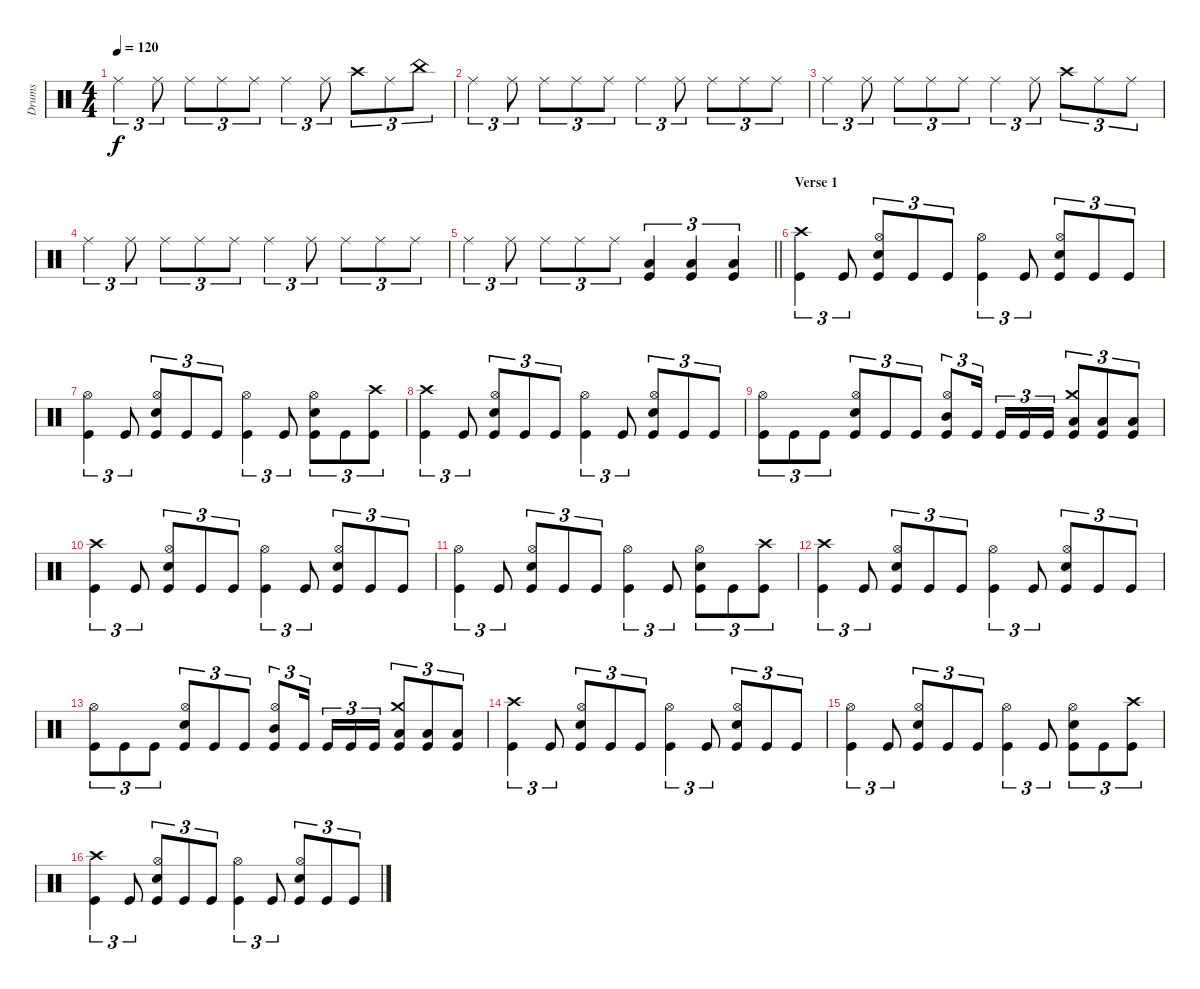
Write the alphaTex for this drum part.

\track ("Drums" "Drums") {instrument percussion}
\staff {score}
\articulation defaults
\ts (4 4)
\tempo 120
\clef neutral
\ks c "Ride (middle)".4{tu (3 2) dy f} "Ride (middle)".8{tu (3 2)} "Ride (middle)".8{tu (3 2)} "Ride (middle)".8{tu (3 2)} "Ride (middle)".8{tu (3 2)} "Ride (middle)".4{tu (3 2)} "Ride (middle)".8{tu (3 2)} "Crash high (hit)".8{tu (3 2)} "Ride (middle)".8{tu (3 2)} "China (hit)".8{tu (3 2)}
|
"Ride (middle)".4{tu (3 2)} "Ride (middle)".8{tu (3 2)} "Ride (middle)".8{tu (3 2)} "Ride (middle)".8{tu (3 2)} "Ride (middle)".8{tu (3 2)} "Ride (middle)".4{tu (3 2)} "Ride (middle)".8{tu (3 2)} "Ride (middle)".8{tu (3 2)} "Ride (middle)".8{tu (3 2)} "Ride (middle)".8{tu (3 2)} |
"Ride (middle)".4{tu (3 2)} "Ride (middle)".8{tu (3 2)} "Ride (middle)".8{tu (3 2)} "Ride (middle)".8{tu (3 2)} "Ride (middle)".8{tu (3 2)} "Ride (middle)".4{tu (3 2)} "Ride (middle)".8{tu (3 2)} "Crash high (hit)".8{tu (3 2)} "Ride (middle)".8{tu (3 2)} "Ride (middle)".8{tu (3 2)} |
"Ride (middle)".4{tu (3 2)} "Ride (middle)".8{tu (3 2)} "Ride (middle)".8{tu (3 2)} "Ride (middle)".8{tu (3 2)} "Ride (middle)".8{tu (3 2)} "Ride (middle)".4{tu (3 2)} "Ride (middle)".8{tu (3 2)} "Ride (middle)".8{tu (3 2)} "Ride (middle)".8{tu (3 2)} "Ride (middle)".8{tu (3 2)} |
\barLineRight lightlight "Ride (middle)".4{tu (3 2)} "Ride (middle)".8{tu (3 2)} "Ride (middle)".8{tu (3 2)} "Ride (middle)".8{tu (3 2)} "Ride (middle)".8{tu (3 2)}
("Low Floor Tom (hit)" "Kick (hit)").4{tu (3 2)} ("Low Floor Tom (hit)" "Kick (hit)").4{tu (3 2)} ("Low Floor Tom (hit)" "Kick (hit)").4{tu (3 2)} |
\section ("" "Verse 1")
("Crash high (hit)" "Kick (hit)").4{tu (3 2)} "Kick (hit)".8{tu (3 2)} ("Hi-Hat (open)" "Snare (hit) 2" "Kick (hit)").8{tu (3 2)} "Kick (hit)".8{tu (3 2)} "Kick (hit)".8{tu (3 2)} ("Hi-Hat (open)" "Kick (hit)").4{tu (3 2)} "Kick (hit)".8{tu (3 2)} ("Hi-Hat (open)" "Snare (hit) 2" "Kick (hit)").8{tu (3 2)} "Kick (hit)".8{tu (3 2)} "Kick (hit)".8{tu (3 2)} |
("Hi-Hat (open)" "Kick (hit)").4{tu (3 2)} "Kick (hit)".8{tu (3 2)} ("Hi-Hat (open)" "Snare (hit) 2" "Kick (hit)").8{tu (3 2)} "Kick (hit)".8{tu (3 2)} "Kick (hit)".8{tu (3 2)} ("Hi-Hat (open)" "Kick (hit)").4{tu (3 2)} "Kick (hit)".8{tu (3 2)} ("Hi-Hat (open)" "Snare (hit) 2" "Kick (hit)").8{tu (3 2)} "Kick (hit)".8{tu (3 2)} ("Crash high (hit)" "Kick (hit)").8{tu (3 2)} |
("Crash high (hit)" "Kick (hit)").4{tu (3 2)} "Kick (hit)".8{tu (3 2)} ("Hi-Hat (open)" "Snare (hit) 2" "Kick (hit)").8{tu (3 2)} "Kick (hit)".8{tu (3 2)} "Kick (hit)".8{tu (3 2)} ("Hi-Hat (open)" "Kick (hit)").4{tu (3 2)} "Kick (hit)".8{tu (3 2)} ("Hi-Hat (open)" "Snare (hit) 2" "Kick (hit)").8{tu (3 2)} "Kick (hit)".8{tu (3 2)} "Kick (hit)".8{tu (3 2)} |
("Hi-Hat (open)" "Kick (hit)").8{tu (3 2)} "Kick (hit)".8{tu (3 2)} "Kick (hit)".8{tu (3 2)} ("Hi-Hat (open)" "Snare (hit) 2" "Kick (hit)").8{tu (3 2)} "Kick (hit)".8{tu (3 2)} "Kick (hit)".8{tu (3 2)} ("Hi-Hat (open)" "Mid Tom (hit)" "Kick (hit)").8{tu (3 2)} "Kick (hit)".16{tu (3 2)} "Kick (hit)".16{tu (3 2)} "Kick (hit)".16{tu (3 2)} "Kick (hit)".16{tu (3 2)} ("Crash medium (hit)" "Low Tom (hit)" "Kick (hit)").8{tu (3 2)} ("Low Tom (hit)" "Kick (hit)").8{tu (3 2)} ("Low Tom (hit)" "Kick (hit)").8{tu (3 2)} |
("Crash high (hit)" "Kick (hit)").4{tu (3 2)} "Kick (hit)".8{tu (3 2)} ("Hi-Hat (open)" "Snare (hit) 2" "Kick (hit)").8{tu (3 2)} "Kick (hit)".8{tu (3 2)} "Kick (hit)".8{tu (3 2)} ("Hi-Hat (open)" "Kick (hit)").4{tu (3 2)} "Kick (hit)".8{tu (3 2)} ("Hi-Hat (open)" "Snare (hit) 2" "Kick (hit)").8{tu (3 2)} "Kick (hit)".8{tu (3 2)} "Kick (hit)".8{tu (3 2)} |
("Hi-Hat (open)" "Kick (hit)").4{tu (3 2)} "Kick (hit)".8{tu (3 2)} ("Hi-Hat (open)" "Snare (hit) 2" "Kick (hit)").8{tu (3 2)} "Kick (hit)".8{tu (3 2)} "Kick (hit)".8{tu (3 2)} ("Hi-Hat (open)" "Kick (hit)").4{tu (3 2)} "Kick (hit)".8{tu (3 2)} ("Hi-Hat (open)" "Snare (hit) 2" "Kick (hit)").8{tu (3 2)} "Kick (hit)".8{tu (3 2)} ("Crash high (hit)" "Kick (hit)").8{tu (3 2)} |
("Crash high (hit)" "Kick (hit)").4{tu (3 2)} "Kick (hit)".8{tu (3 2)} ("Hi-Hat (open)" "Snare (hit) 2" "Kick (hit)").8{tu (3 2)} "Kick (hit)".8{tu (3 2)} "Kick (hit)".8{tu (3 2)} ("Hi-Hat (open)" "Kick (hit)").4{tu (3 2)} "Kick (hit)".8{tu (3 2)} ("Hi-Hat (open)" "Snare (hit) 2" "Kick (hit)").8{tu (3 2)} "Kick (hit)".8{tu (3 2)} "Kick (hit)".8{tu (3 2)} |
("Hi-Hat (open)" "Kick (hit)").8{tu (3 2)} "Kick (hit)".8{tu (3 2)} "Kick (hit)".8{tu (3 2)} ("Hi-Hat (open)" "Snare (hit) 2" "Kick (hit)").8{tu (3 2)} "Kick (hit)".8{tu (3 2)} "Kick (hit)".8{tu (3 2)} ("Hi-Hat (open)" "Mid Tom (hit)" "Kick (hit)").8{tu (3 2)} "Kick (hit)".16{tu (3 2)} "Kick (hit)".16{tu (3 2)} "Kick (hit)".16{tu (3 2)} "Kick (hit)".16{tu (3 2)} ("Crash medium (hit)" "Low Tom (hit)" "Kick (hit)").8{tu (3 2)} ("Low Tom (hit)" "Kick (hit)").8{tu (3 2)} ("Low Tom (hit)" "Kick (hit)").8{tu (3 2)} |
("Crash high (hit)" "Kick (hit)").4{tu (3 2)} "Kick (hit)".8{tu (3 2)} ("Hi-Hat (open)" "Snare (hit) 2" "Kick (hit)").8{tu (3 2)} "Kick (hit)".8{tu (3 2)} "Kick (hit)".8{tu (3 2)} ("Hi-Hat (open)" "Kick (hit)").4{tu (3 2)} "Kick (hit)".8{tu (3 2)} ("Hi-Hat (open)" "Snare (hit) 2" "Kick (hit)").8{tu (3 2)} "Kick (hit)".8{tu (3 2)} "Kick (hit)".8{tu (3 2)} |
("Hi-Hat (open)" "Kick (hit)").4{tu (3 2)} "Kick (hit)".8{tu (3 2)} ("Hi-Hat (open)" "Snare (hit) 2" "Kick (hit)").8{tu (3 2)} "Kick (hit)".8{tu (3 2)} "Kick (hit)".8{tu (3 2)} ("Hi-Hat (open)" "Kick (hit)").4{tu (3 2)} "Kick (hit)".8{tu (3 2)} ("Hi-Hat (open)" "Snare (hit) 2" "Kick (hit)").8{tu (3 2)} "Kick (hit)".8{tu (3 2)} ("Crash high (hit)" "Kick (hit)").8{tu (3 2)} |
("Crash high (hit)" "Kick (hit)").4{tu (3 2)} "Kick (hit)".8{tu (3 2)} ("Hi-Hat (open)" "Snare (hit) 2" "Kick (hit)").8{tu (3 2)} "Kick (hit)".8{tu (3 2)} "Kick (hit)".8{tu (3 2)} ("Hi-Hat (open)" "Kick (hit)").4{tu (3 2)} "Kick (hit)".8{tu (3 2)} ("Hi-Hat (open)" "Snare (hit) 2" "Kick (hit)").8{tu (3 2)} "Kick (hit)".8{tu (3 2)} "Kick (hit)".8{tu (3 2)}
